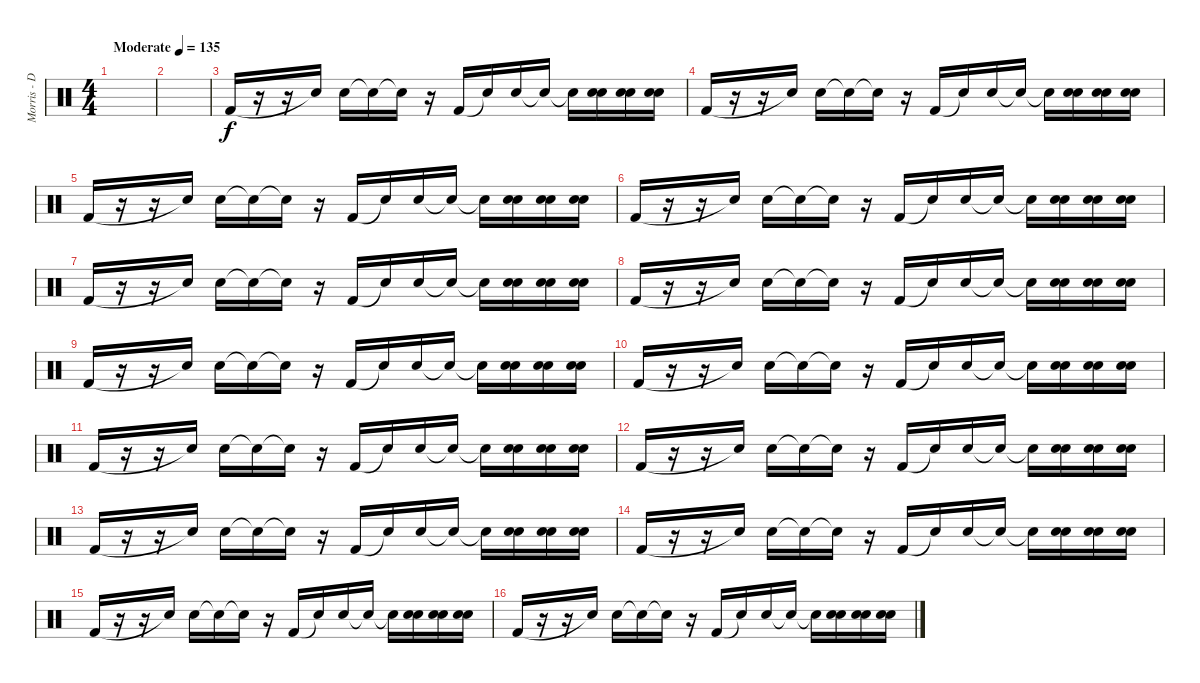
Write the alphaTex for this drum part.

\track ("Morris - Drums" "Morris - D") {instrument percussion}
\staff {score}
\articulation defaults
\ts (4 4)
\tempo (135 "Moderate")
\clef neutral
\ks c
|
|
"Kick (hit) 2".16 r.16 r.16 "Snare (hit)"{t}.16 "Snare (hit) 2".16 "Snare (hit)"{t}.16 "Snare (hit)"{t}.16 r.16 "Kick (hit) 2".16 "Snare (hit)"{t}.16 "Snare (hit) 2".16 "Snare (hit)"{t}.16 "Snare (hit)"{t}.16 ("Snare (hit) 2" "Snare (hit) 2").16 ("Snare (hit) 2" "Snare (hit) 2").16 ("Snare (hit) 2" "Snare (hit) 2").16 |
"Kick (hit) 2".16 r.16 r.16 "Snare (hit)"{t}.16 "Snare (hit) 2".16 "Snare (hit)"{t}.16 "Snare (hit)"{t}.16 r.16 "Kick (hit) 2".16 "Snare (hit)"{t}.16 "Snare (hit) 2".16 "Snare (hit)"{t}.16 "Snare (hit)"{t}.16 ("Snare (hit) 2" "Snare (hit) 2").16 ("Snare (hit) 2" "Snare (hit) 2").16 ("Snare (hit) 2" "Snare (hit) 2").16 |
"Kick (hit) 2".16 r.16 r.16 "Snare (hit)"{t}.16 "Snare (hit) 2".16 "Snare (hit)"{t}.16 "Snare (hit)"{t}.16 r.16 "Kick (hit) 2".16 "Snare (hit)"{t}.16 "Snare (hit) 2".16 "Snare (hit)"{t}.16 "Snare (hit)"{t}.16 ("Snare (hit) 2" "Snare (hit) 2").16 ("Snare (hit) 2" "Snare (hit) 2").16 ("Snare (hit) 2" "Snare (hit) 2").16 |
"Kick (hit) 2".16 r.16 r.16 "Snare (hit)"{t}.16 "Snare (hit) 2".16 "Snare (hit)"{t}.16 "Snare (hit)"{t}.16 r.16 "Kick (hit) 2".16 "Snare (hit)"{t}.16 "Snare (hit) 2".16 "Snare (hit)"{t}.16 "Snare (hit)"{t}.16 ("Snare (hit) 2" "Snare (hit) 2").16 ("Snare (hit) 2" "Snare (hit) 2").16 ("Snare (hit) 2" "Snare (hit) 2").16 |
"Kick (hit) 2".16 r.16 r.16 "Snare (hit)"{t}.16 "Snare (hit) 2".16 "Snare (hit)"{t}.16 "Snare (hit)"{t}.16 r.16 "Kick (hit) 2".16 "Snare (hit)"{t}.16 "Snare (hit) 2".16 "Snare (hit)"{t}.16 "Snare (hit)"{t}.16 ("Snare (hit) 2" "Snare (hit) 2").16 ("Snare (hit) 2" "Snare (hit) 2").16 ("Snare (hit) 2" "Snare (hit) 2").16 |
"Kick (hit) 2".16 r.16 r.16 "Snare (hit)"{t}.16 "Snare (hit) 2".16 "Snare (hit)"{t}.16 "Snare (hit)"{t}.16 r.16 "Kick (hit) 2".16 "Snare (hit)"{t}.16 "Snare (hit) 2".16 "Snare (hit)"{t}.16 "Snare (hit)"{t}.16 ("Snare (hit) 2" "Snare (hit) 2").16 ("Snare (hit) 2" "Snare (hit) 2").16 ("Snare (hit) 2" "Snare (hit) 2").16 |
"Kick (hit) 2".16 r.16 r.16 "Snare (hit)"{t}.16 "Snare (hit) 2".16 "Snare (hit)"{t}.16 "Snare (hit)"{t}.16 r.16 "Kick (hit) 2".16 "Snare (hit)"{t}.16 "Snare (hit) 2".16 "Snare (hit)"{t}.16 "Snare (hit)"{t}.16 ("Snare (hit) 2" "Snare (hit) 2").16 ("Snare (hit) 2" "Snare (hit) 2").16 ("Snare (hit) 2" "Snare (hit) 2").16 |
"Kick (hit) 2".16 r.16 r.16 "Snare (hit)"{t}.16 "Snare (hit) 2".16 "Snare (hit)"{t}.16 "Snare (hit)"{t}.16 r.16 "Kick (hit) 2".16 "Snare (hit)"{t}.16 "Snare (hit) 2".16 "Snare (hit)"{t}.16 "Snare (hit)"{t}.16 ("Snare (hit) 2" "Snare (hit) 2").16 ("Snare (hit) 2" "Snare (hit) 2").16 ("Snare (hit) 2" "Snare (hit) 2").16 |
"Kick (hit) 2".16 r.16 r.16 "Snare (hit)"{t}.16 "Snare (hit) 2".16 "Snare (hit)"{t}.16 "Snare (hit)"{t}.16 r.16 "Kick (hit) 2".16 "Snare (hit)"{t}.16 "Snare (hit) 2".16 "Snare (hit)"{t}.16 "Snare (hit)"{t}.16 ("Snare (hit) 2" "Snare (hit) 2").16 ("Snare (hit) 2" "Snare (hit) 2").16 ("Snare (hit) 2" "Snare (hit) 2").16 |
"Kick (hit) 2".16 r.16 r.16 "Snare (hit)"{t}.16 "Snare (hit) 2".16 "Snare (hit)"{t}.16 "Snare (hit)"{t}.16 r.16 "Kick (hit) 2".16 "Snare (hit)"{t}.16 "Snare (hit) 2".16 "Snare (hit)"{t}.16 "Snare (hit)"{t}.16 ("Snare (hit) 2" "Snare (hit) 2").16 ("Snare (hit) 2" "Snare (hit) 2").16 ("Snare (hit) 2" "Snare (hit) 2").16 |
"Kick (hit) 2".16 r.16 r.16 "Snare (hit)"{t}.16 "Snare (hit) 2".16 "Snare (hit)"{t}.16 "Snare (hit)"{t}.16 r.16 "Kick (hit) 2".16 "Snare (hit)"{t}.16 "Snare (hit) 2".16 "Snare (hit)"{t}.16 "Snare (hit)"{t}.16 ("Snare (hit) 2" "Snare (hit) 2").16 ("Snare (hit) 2" "Snare (hit) 2").16 ("Snare (hit) 2" "Snare (hit) 2").16 |
"Kick (hit) 2".16 r.16 r.16 "Snare (hit)"{t}.16 "Snare (hit) 2".16 "Snare (hit)"{t}.16 "Snare (hit)"{t}.16 r.16 "Kick (hit) 2".16 "Snare (hit)"{t}.16 "Snare (hit) 2".16 "Snare (hit)"{t}.16 "Snare (hit)"{t}.16 ("Snare (hit) 2" "Snare (hit) 2").16 ("Snare (hit) 2" "Snare (hit) 2").16 ("Snare (hit) 2" "Snare (hit) 2").16 |
"Kick (hit) 2".16 r.16 r.16 "Snare (hit)"{t}.16 "Snare (hit) 2".16 "Snare (hit)"{t}.16 "Snare (hit)"{t}.16 r.16 "Kick (hit) 2".16 "Snare (hit)"{t}.16 "Snare (hit) 2".16 "Snare (hit)"{t}.16 "Snare (hit)"{t}.16 ("Snare (hit) 2" "Snare (hit) 2").16 ("Snare (hit) 2" "Snare (hit) 2").16 ("Snare (hit) 2" "Snare (hit) 2").16 |
"Kick (hit) 2".16 r.16 r.16 "Snare (hit)"{t}.16 "Snare (hit) 2".16 "Snare (hit)"{t}.16 "Snare (hit)"{t}.16 r.16 "Kick (hit) 2".16 "Snare (hit)"{t}.16 "Snare (hit) 2".16 "Snare (hit)"{t}.16 "Snare (hit)"{t}.16 ("Snare (hit) 2" "Snare (hit) 2").16 ("Snare (hit) 2" "Snare (hit) 2").16 ("Snare (hit) 2" "Snare (hit) 2").16
